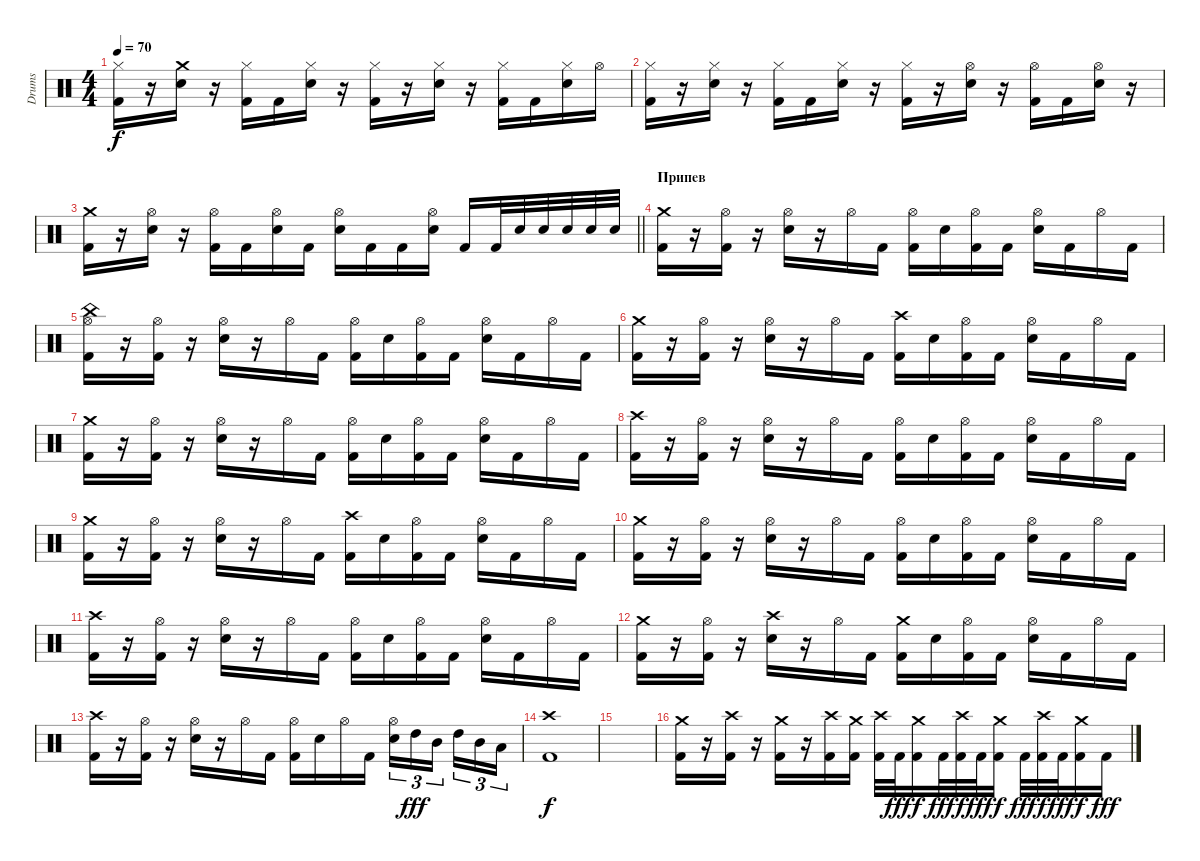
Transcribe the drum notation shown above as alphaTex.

\track ("Drums" "Drums") {instrument percussion}
\staff {score}
\articulation defaults
\ts (4 4)
\tempo 70
\clef neutral
\ks c
("Hi-Hat (closed)" "Kick (hit) 2").16{dy f} r.16 ("Crash medium (hit)" "Electric Snare (hit)").16 r.16 ("Hi-Hat (closed)" "Kick (hit) 2").16 "Kick (hit) 2".16 ("Hi-Hat (closed)" "Electric Snare (hit)").16 r.16 ("Hi-Hat (closed)" "Kick (hit) 2").16 r.16 ("Hi-Hat (closed)" "Electric Snare (hit)").16 r.16 ("Hi-Hat (closed)" "Kick (hit) 2").16 "Kick (hit) 2".16 ("Hi-Hat (closed)" "Electric Snare (hit)").16 "Hi-Hat (open)".16 |
("Hi-Hat (closed)" "Kick (hit) 2").16 r.16 ("Hi-Hat (closed)" "Electric Snare (hit)").16 r.16 ("Hi-Hat (closed)" "Kick (hit) 2").16 "Kick (hit) 2".16 ("Hi-Hat (closed)" "Electric Snare (hit)").16 r.16 ("Hi-Hat (closed)" "Kick (hit) 2").16 r.16 ("Hi-Hat (open)" "Electric Snare (hit)").16 r.16 ("Hi-Hat (open)" "Kick (hit) 2").16 "Kick (hit) 2".16 ("Hi-Hat (open)" "Electric Snare (hit)").16 r.16 |
\barLineRight lightlight
("Crash medium (hit)" "Kick (hit) 2").16 r.16 ("Hi-Hat (open)" "Electric Snare (hit)").16 r.16 ("Hi-Hat (open)" "Kick (hit) 2").16 "Kick (hit) 2".16 ("Hi-Hat (open)" "Electric Snare (hit)").16 "Kick (hit) 2".16 ("Hi-Hat (open)" "Electric Snare (hit)").16 "Kick (hit) 2".16 "Kick (hit) 2".16 ("Hi-Hat (open)" "Electric Snare (hit)").16 "Kick (hit) 2".16 "Kick (hit) 2".32 "Electric Snare (hit)".32 "Electric Snare (hit)".32 "Electric Snare (hit)".32 "Electric Snare (hit)".32 "Electric Snare (hit)".32 |
\section ("" "Припев")
("Crash medium (hit)" "Kick (hit) 2").16 r.16 ("Hi-Hat (open)" "Kick (hit) 2").16 r.16 ("Hi-Hat (open)" "Electric Snare (hit)").16 r.16 "Hi-Hat (open)".16 "Kick (hit) 2".16 ("Hi-Hat (open)" "Kick (hit) 2").16 "Electric Snare (hit)".16 ("Hi-Hat (open)" "Kick (hit) 2").16 "Kick (hit) 2".16 ("Hi-Hat (open)" "Electric Snare (hit)").16 "Kick (hit) 2".16 "Hi-Hat (open)".16 "Kick (hit) 2".16 |
("Hi-Hat (open)" "Kick (hit) 2" "China (hit)").16 r.16 ("Hi-Hat (open)" "Kick (hit) 2").16 r.16 ("Hi-Hat (open)" "Electric Snare (hit)").16 r.16 "Hi-Hat (open)".16 "Kick (hit) 2".16 ("Hi-Hat (open)" "Kick (hit) 2").16 "Electric Snare (hit)".16 ("Hi-Hat (open)" "Kick (hit) 2").16 "Kick (hit) 2".16 ("Hi-Hat (open)" "Electric Snare (hit)").16 "Kick (hit) 2".16 "Hi-Hat (open)".16 "Kick (hit) 2".16 |
("Crash medium (hit)" "Kick (hit) 2").16 r.16 ("Hi-Hat (open)" "Kick (hit) 2").16 r.16 ("Hi-Hat (open)" "Electric Snare (hit)").16 r.16 "Hi-Hat (open)".16 "Kick (hit) 2".16 ("Crash high (hit)" "Kick (hit) 2").16 "Electric Snare (hit)".16 ("Hi-Hat (open)" "Kick (hit) 2").16 "Kick (hit) 2".16 ("Hi-Hat (open)" "Electric Snare (hit)").16 "Kick (hit) 2".16 "Hi-Hat (open)".16 "Kick (hit) 2".16 |
("Crash medium (hit)" "Kick (hit) 2").16 r.16 ("Hi-Hat (open)" "Kick (hit) 2").16 r.16 ("Hi-Hat (open)" "Electric Snare (hit)").16 r.16 "Hi-Hat (open)".16 "Kick (hit) 2".16 ("Hi-Hat (open)" "Kick (hit) 2").16 "Electric Snare (hit)".16 ("Hi-Hat (open)" "Kick (hit) 2").16 "Kick (hit) 2".16 ("Hi-Hat (open)" "Electric Snare (hit)").16 "Kick (hit) 2".16 "Hi-Hat (open)".16 "Kick (hit) 2".16 |
("Crash high (hit)" "Kick (hit) 2").16 r.16 ("Hi-Hat (open)" "Kick (hit) 2").16 r.16 ("Hi-Hat (open)" "Electric Snare (hit)").16 r.16 "Hi-Hat (open)".16 "Kick (hit) 2".16 ("Hi-Hat (open)" "Kick (hit) 2").16 "Electric Snare (hit)".16 ("Hi-Hat (open)" "Kick (hit) 2").16 "Kick (hit) 2".16 ("Hi-Hat (open)" "Electric Snare (hit)").16 "Kick (hit) 2".16 "Hi-Hat (open)".16 "Kick (hit) 2".16 |
("Crash medium (hit)" "Kick (hit) 2").16 r.16 ("Hi-Hat (open)" "Kick (hit) 2").16 r.16 ("Hi-Hat (open)" "Electric Snare (hit)").16 r.16 "Hi-Hat (open)".16 "Kick (hit) 2".16 ("Crash high (hit)" "Kick (hit) 2").16 "Electric Snare (hit)".16 ("Hi-Hat (open)" "Kick (hit) 2").16 "Kick (hit) 2".16 ("Hi-Hat (open)" "Electric Snare (hit)").16 "Kick (hit) 2".16 "Hi-Hat (open)".16 "Kick (hit) 2".16 |
("Crash medium (hit)" "Kick (hit) 2").16 r.16 ("Hi-Hat (open)" "Kick (hit) 2").16 r.16 ("Hi-Hat (open)" "Electric Snare (hit)").16 r.16 "Hi-Hat (open)".16 "Kick (hit) 2".16 ("Hi-Hat (open)" "Kick (hit) 2").16 "Electric Snare (hit)".16 ("Hi-Hat (open)" "Kick (hit) 2").16 "Kick (hit) 2".16 ("Hi-Hat (open)" "Electric Snare (hit)").16 "Kick (hit) 2".16 "Hi-Hat (open)".16 "Kick (hit) 2".16 |
("Crash high (hit)" "Kick (hit) 2").16 r.16 ("Hi-Hat (open)" "Kick (hit) 2").16 r.16 ("Hi-Hat (open)" "Electric Snare (hit)").16 r.16 "Hi-Hat (open)".16 "Kick (hit) 2".16 ("Hi-Hat (open)" "Kick (hit) 2").16 "Electric Snare (hit)".16 ("Hi-Hat (open)" "Kick (hit) 2").16 "Kick (hit) 2".16 ("Hi-Hat (open)" "Electric Snare (hit)").16 "Kick (hit) 2".16 "Hi-Hat (open)".16 "Kick (hit) 2".16 |
("Crash medium (hit)" "Kick (hit) 2").16 r.16 ("Hi-Hat (open)" "Kick (hit) 2").16 r.16 ("Crash high (hit)" "Electric Snare (hit)").16 r.16 "Hi-Hat (open)".16 "Kick (hit) 2".16 ("Crash medium (hit)" "Kick (hit) 2").16 "Electric Snare (hit)".16 ("Hi-Hat (open)" "Kick (hit) 2").16 "Kick (hit) 2".16 ("Hi-Hat (open)" "Electric Snare (hit)").16 "Kick (hit) 2".16 "Hi-Hat (open)".16 "Kick (hit) 2".16 |
("Crash high (hit)" "Kick (hit) 2").16 r.16 ("Hi-Hat (open)" "Kick (hit) 2").16 r.16 ("Hi-Hat (open)" "Electric Snare (hit)").16 r.16 "Hi-Hat (open)".16 "Kick (hit) 2".16 ("Hi-Hat (open)" "Kick (hit) 2").16 "Electric Snare (hit)".16 "Hi-Hat (open)".16 "Kick (hit) 2".16 ("Hi-Hat (open)" "Electric Snare (hit)").16{tu (3 2)} "High Tom (hit)".16{tu (3 2) dy fff} "Mid Tom (hit)".16{tu (3 2) beam splitsecondary} "High Tom (hit)".16{tu (3 2)} "Mid Tom (hit)".16{tu (3 2)} "Low Tom (hit)".16{tu (3 2)} |
("Crash high (hit)" "Kick (hit) 2").1{dy f} |
|
("Crash medium (hit)" "Kick (hit) 2").16 r.16 ("Crash high (hit)" "Kick (hit) 2").16 r.16 ("Crash medium (hit)" "Kick (hit) 2").16 r.16 ("Crash high (hit)" "Kick (hit) 2").16 ("Crash medium (hit)" "Kick (hit) 2").16 ("Crash high (hit)" "Kick (hit) 2").32 "Kick (hit) 2".32{dy fff} ("Crash medium (hit)" "Kick (hit) 2").16{dy f} "Kick (hit) 2".32{dy fff} ("Crash high (hit)" "Kick (hit) 2").32{dy f} "Kick (hit) 2".32{dy fff} ("Crash medium (hit)" "Kick (hit) 2").16{dy f} "Kick (hit) 2".32{dy fff} ("Crash high (hit)" "Kick (hit) 2").32{dy f} "Kick (hit) 2".32{dy fff} ("Crash medium (hit)" "Kick (hit) 2").16{dy f} "Kick (hit) 2".16{dy fff}
